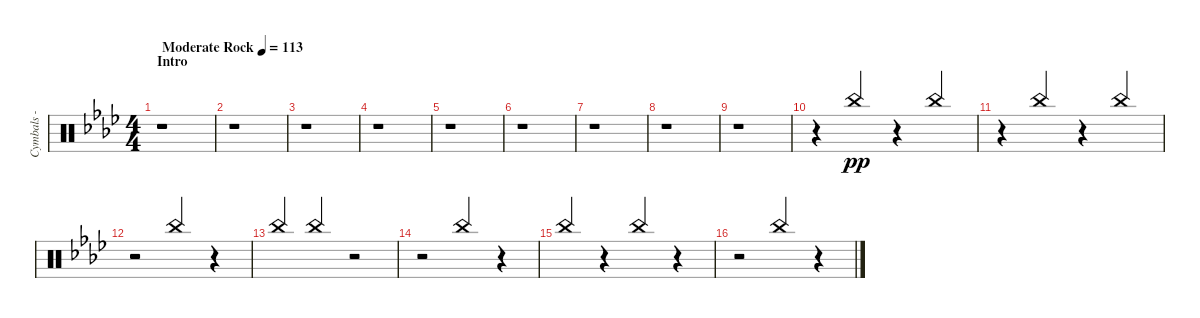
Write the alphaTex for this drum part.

\track ("Cymbals - china" "Cymbals - ") {instrument percussion}
\staff {score}
\articulation defaults
\ts (4 4)
\section ("" "Intro")
\tempo (113 "Moderate Rock")
\clef neutral
\ks fminor
r.1{dy pp} |
r.1 |
r.1 |
r.1 |
r.1 |
r.1 |
r.1 |
r.1 |
r.1 |
r.4{volume 10 balance 5} "China (hit)".4{beam Up} r.4{beam Up} "China (hit)".4{beam Up} |
r.4{beam Up} "China (hit)".4{beam Up} r.4{beam Up} "China (hit)".4{beam Up} |
r.2{beam Up} "China (hit)".4{beam Up} r.4 |
"China (hit)".4{beam Up} "China (hit)".4{beam Up} r.2{beam Up} |
r.2{beam Up} "China (hit)".4{beam Up} r.4{beam Up} |
"China (hit)".4{beam Up} r.4{beam Up} "China (hit)".4{beam Up} r.4{beam Up} |
r.2{beam Up} "China (hit)".4{beam Up} r.4{beam Up}
